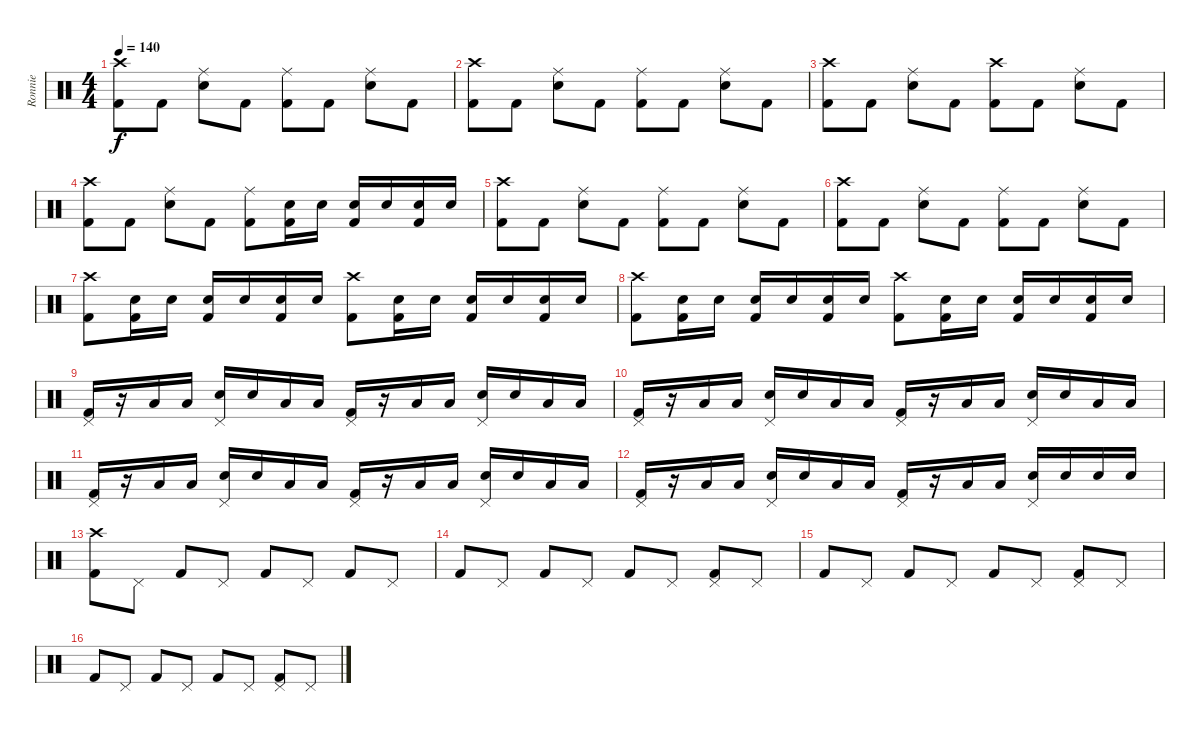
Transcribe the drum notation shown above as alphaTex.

\track ("Ronnie" "Ronnie") {instrument percussion}
\staff {score}
\articulation defaults
\ts (4 4)
\tempo 140
\clef neutral
\ks c
("Crash high (hit)" "Kick (hit) 2").8{dy f} "Kick (hit) 2".8 ("Electric Snare (hit)" "Ride (middle)").8 "Kick (hit) 2".8 ("Ride (middle)" "Kick (hit) 2").8 "Kick (hit) 2".8 ("Electric Snare (hit)" "Ride (middle)").8 "Kick (hit) 2".8 |
("Crash high (hit)" "Kick (hit) 2").8 "Kick (hit) 2".8 ("Electric Snare (hit)" "Ride (middle)").8 "Kick (hit) 2".8 ("Ride (middle)" "Kick (hit) 2").8 "Kick (hit) 2".8 ("Electric Snare (hit)" "Ride (middle)").8 "Kick (hit) 2".8 |
("Crash high (hit)" "Kick (hit) 2").8 "Kick (hit) 2".8 ("Electric Snare (hit)" "Ride (middle)").8 "Kick (hit) 2".8 ("Crash high (hit)" "Kick (hit) 2").8 "Kick (hit) 2".8 ("Electric Snare (hit)" "Ride (middle)").8 "Kick (hit) 2".8 |
("Crash high (hit)" "Kick (hit) 2").8 "Kick (hit) 2".8 ("Electric Snare (hit)" "Ride (middle)").8 "Kick (hit) 2".8 ("Ride (middle)" "Kick (hit) 2").8 ("Kick (hit) 2" "Electric Snare (hit)").16 "Electric Snare (hit)".16 ("Kick (hit) 2" "Electric Snare (hit)").16 "Electric Snare (hit)".16 ("Kick (hit) 2" "Electric Snare (hit)").16 "Electric Snare (hit)".16 |
("Crash high (hit)" "Kick (hit) 2").8 "Kick (hit) 2".8 ("Electric Snare (hit)" "Ride (middle)").8 "Kick (hit) 2".8 ("Ride (middle)" "Kick (hit) 2").8 "Kick (hit) 2".8 ("Electric Snare (hit)" "Ride (middle)").8 "Kick (hit) 2".8 |
("Crash high (hit)" "Kick (hit) 2").8 "Kick (hit) 2".8 ("Electric Snare (hit)" "Ride (middle)").8 "Kick (hit) 2".8 ("Ride (middle)" "Kick (hit) 2").8 "Kick (hit) 2".8 ("Electric Snare (hit)" "Ride (middle)").8 "Kick (hit) 2".8 |
("Crash high (hit)" "Kick (hit) 2").8 ("Kick (hit) 2" "Electric Snare (hit)").16 "Electric Snare (hit)".16 ("Kick (hit) 2" "Electric Snare (hit)").16 "Electric Snare (hit)".16 ("Kick (hit) 2" "Electric Snare (hit)").16 "Electric Snare (hit)".16 ("Crash high (hit)" "Kick (hit) 2").8 ("Kick (hit) 2" "Electric Snare (hit)").16 "Electric Snare (hit)".16 ("Kick (hit) 2" "Electric Snare (hit)").16 "Electric Snare (hit)".16 ("Kick (hit) 2" "Electric Snare (hit)").16 "Electric Snare (hit)".16 |
("Crash high (hit)" "Kick (hit) 2").8 ("Kick (hit) 2" "Electric Snare (hit)").16 "Electric Snare (hit)".16 ("Kick (hit) 2" "Electric Snare (hit)").16 "Electric Snare (hit)".16 ("Kick (hit) 2" "Electric Snare (hit)").16 "Electric Snare (hit)".16 ("Crash high (hit)" "Kick (hit) 2").8 ("Kick (hit) 2" "Electric Snare (hit)").16 "Electric Snare (hit)".16 ("Kick (hit) 2" "Electric Snare (hit)").16 "Electric Snare (hit)".16 ("Kick (hit) 2" "Electric Snare (hit)").16 "Electric Snare (hit)".16 |
("Pedal Hi-Hat (hit)" "Kick (hit) 2").16 r.16 "Low Tom (hit)".16 "Low Tom (hit)".16 ("Pedal Hi-Hat (hit)" "Electric Snare (hit)").16 "Electric Snare (hit)".16 "Low Floor Tom (hit)".16 "Low Floor Tom (hit)".16 ("Pedal Hi-Hat (hit)" "Kick (hit) 2").16 r.16 "Low Tom (hit)".16 "Low Tom (hit)".16 ("Pedal Hi-Hat (hit)" "Electric Snare (hit)").16 "Electric Snare (hit)".16 "Low Floor Tom (hit)".16 "Low Floor Tom (hit)".16 |
("Pedal Hi-Hat (hit)" "Kick (hit) 2").16 r.16 "Low Tom (hit)".16 "Low Tom (hit)".16 ("Pedal Hi-Hat (hit)" "Electric Snare (hit)").16 "Electric Snare (hit)".16 "Low Floor Tom (hit)".16 "Low Floor Tom (hit)".16 ("Pedal Hi-Hat (hit)" "Kick (hit) 2").16 r.16 "Low Tom (hit)".16 "Low Tom (hit)".16 ("Pedal Hi-Hat (hit)" "Electric Snare (hit)").16 "Electric Snare (hit)".16 "Low Floor Tom (hit)".16 "Low Floor Tom (hit)".16 |
("Pedal Hi-Hat (hit)" "Kick (hit) 2").16 r.16 "Low Tom (hit)".16 "Low Tom (hit)".16 ("Pedal Hi-Hat (hit)" "Electric Snare (hit)").16 "Electric Snare (hit)".16 "Low Floor Tom (hit)".16 "Low Floor Tom (hit)".16 ("Pedal Hi-Hat (hit)" "Kick (hit) 2").16 r.16 "Low Tom (hit)".16 "Low Tom (hit)".16 ("Pedal Hi-Hat (hit)" "Electric Snare (hit)").16 "Electric Snare (hit)".16 "Low Floor Tom (hit)".16 "Low Floor Tom (hit)".16 |
("Pedal Hi-Hat (hit)" "Kick (hit) 2").16 r.16 "Low Tom (hit)".16 "Low Tom (hit)".16 ("Pedal Hi-Hat (hit)" "Electric Snare (hit)").16 "Electric Snare (hit)".16 "Low Floor Tom (hit)".16 "Low Floor Tom (hit)".16 ("Pedal Hi-Hat (hit)" "Kick (hit) 2").16 r.16 "Low Tom (hit)".16 "Low Tom (hit)".16 ("Pedal Hi-Hat (hit)" "Electric Snare (hit)").16 "Electric Snare (hit)".16 "Electric Snare (hit)".16 "Electric Snare (hit)".16 |
("Kick (hit) 2" "Crash high (hit)").8 "Pedal Hi-Hat (hit)".8 "Kick (hit) 2".8 "Pedal Hi-Hat (hit)".8 "Kick (hit) 2".8 "Pedal Hi-Hat (hit)".8 "Kick (hit) 2".8 "Pedal Hi-Hat (hit)".8 |
"Kick (hit) 2".8 "Pedal Hi-Hat (hit)".8 "Kick (hit) 2".8 "Pedal Hi-Hat (hit)".8 "Kick (hit) 2".8 "Pedal Hi-Hat (hit)".8 ("Pedal Hi-Hat (hit)" "Kick (hit) 2").8 "Pedal Hi-Hat (hit)".8 |
"Kick (hit) 2".8 "Pedal Hi-Hat (hit)".8 "Kick (hit) 2".8 "Pedal Hi-Hat (hit)".8 "Kick (hit) 2".8 "Pedal Hi-Hat (hit)".8 ("Pedal Hi-Hat (hit)" "Kick (hit) 2").8 "Pedal Hi-Hat (hit)".8 |
"Kick (hit) 2".8 "Pedal Hi-Hat (hit)".8 "Kick (hit) 2".8 "Pedal Hi-Hat (hit)".8 "Kick (hit) 2".8 "Pedal Hi-Hat (hit)".8 ("Pedal Hi-Hat (hit)" "Kick (hit) 2").8 "Pedal Hi-Hat (hit)".8
